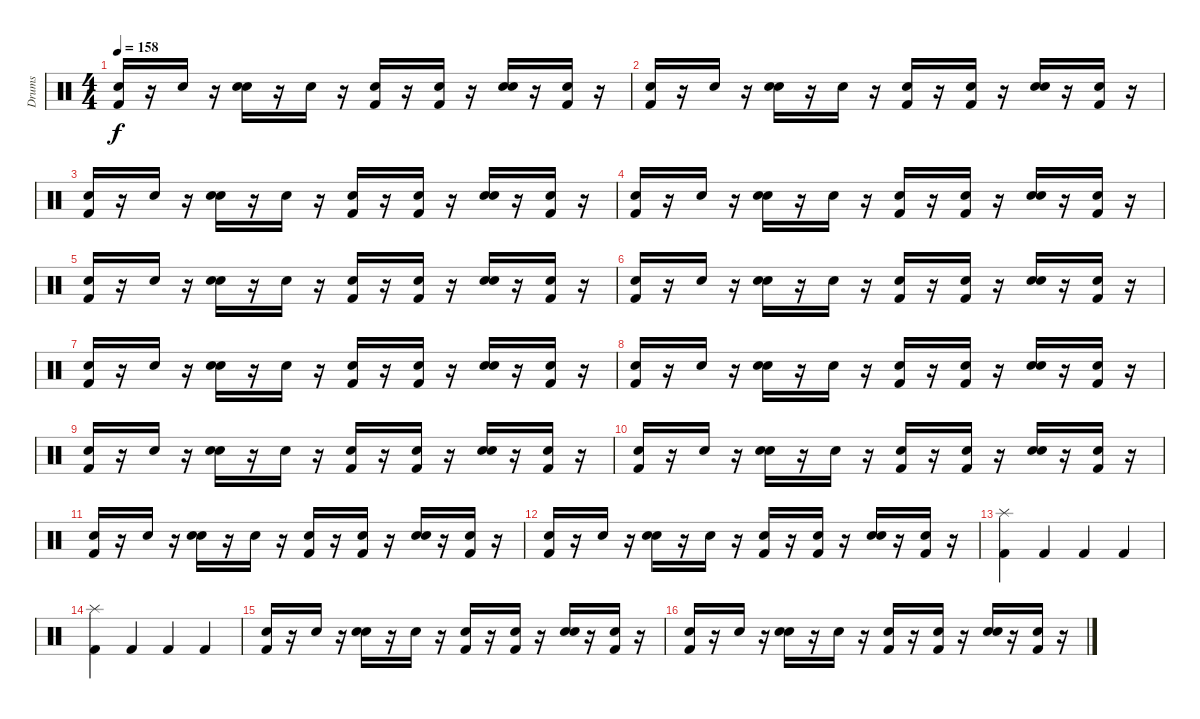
\track ("Drums" "Drums") {instrument percussion}
\staff {score}
\articulation defaults
\ts (4 4)
\tempo 158
\clef neutral
\ks c
("Snare (hit) 2" "Kick (hit) 2").16{dy f} r.16 "Snare (hit) 2".16 r.16 ("Snare (hit) 2" "Electric Snare (hit)").16 r.16 "Snare (hit) 2".16 r.16 ("Snare (hit) 2" "Kick (hit) 2").16 r.16 ("Snare (hit) 2" "Kick (hit) 2").16 r.16 ("Snare (hit) 2" "Electric Snare (hit)").16 r.16 ("Snare (hit) 2" "Kick (hit) 2").16 r.16 |
("Snare (hit) 2" "Kick (hit) 2").16 r.16 "Snare (hit) 2".16 r.16 ("Snare (hit) 2" "Electric Snare (hit)").16 r.16 "Snare (hit) 2".16 r.16 ("Snare (hit) 2" "Kick (hit) 2").16 r.16 ("Snare (hit) 2" "Kick (hit) 2").16 r.16 ("Snare (hit) 2" "Electric Snare (hit)").16 r.16 ("Snare (hit) 2" "Kick (hit) 2").16 r.16 |
("Snare (hit) 2" "Kick (hit) 2").16 r.16 "Snare (hit) 2".16 r.16 ("Snare (hit) 2" "Electric Snare (hit)").16 r.16 "Snare (hit) 2".16 r.16 ("Snare (hit) 2" "Kick (hit) 2").16 r.16 ("Snare (hit) 2" "Kick (hit) 2").16 r.16 ("Snare (hit) 2" "Electric Snare (hit)").16 r.16 ("Snare (hit) 2" "Kick (hit) 2").16 r.16 |
("Snare (hit) 2" "Kick (hit) 2").16 r.16 "Snare (hit) 2".16 r.16 ("Snare (hit) 2" "Electric Snare (hit)").16 r.16 "Snare (hit) 2".16 r.16 ("Snare (hit) 2" "Kick (hit) 2").16 r.16 ("Snare (hit) 2" "Kick (hit) 2").16 r.16 ("Snare (hit) 2" "Electric Snare (hit)").16 r.16 ("Snare (hit) 2" "Kick (hit) 2").16 r.16 |
("Snare (hit) 2" "Kick (hit) 2").16 r.16 "Snare (hit) 2".16 r.16 ("Snare (hit) 2" "Electric Snare (hit)").16 r.16 "Snare (hit) 2".16 r.16 ("Snare (hit) 2" "Kick (hit) 2").16 r.16 ("Snare (hit) 2" "Kick (hit) 2").16 r.16 ("Snare (hit) 2" "Electric Snare (hit)").16 r.16 ("Snare (hit) 2" "Kick (hit) 2").16 r.16 |
("Snare (hit) 2" "Kick (hit) 2").16 r.16 "Snare (hit) 2".16 r.16 ("Snare (hit) 2" "Electric Snare (hit)").16 r.16 "Snare (hit) 2".16 r.16 ("Snare (hit) 2" "Kick (hit) 2").16 r.16 ("Snare (hit) 2" "Kick (hit) 2").16 r.16 ("Snare (hit) 2" "Electric Snare (hit)").16 r.16 ("Snare (hit) 2" "Kick (hit) 2").16 r.16 |
("Snare (hit) 2" "Kick (hit) 2").16 r.16 "Snare (hit) 2".16 r.16 ("Snare (hit) 2" "Electric Snare (hit)").16 r.16 "Snare (hit) 2".16 r.16 ("Snare (hit) 2" "Kick (hit) 2").16 r.16 ("Snare (hit) 2" "Kick (hit) 2").16 r.16 ("Snare (hit) 2" "Electric Snare (hit)").16 r.16 ("Snare (hit) 2" "Kick (hit) 2").16 r.16 |
("Snare (hit) 2" "Kick (hit) 2").16 r.16 "Snare (hit) 2".16 r.16 ("Snare (hit) 2" "Electric Snare (hit)").16 r.16 "Snare (hit) 2".16 r.16 ("Snare (hit) 2" "Kick (hit) 2").16 r.16 ("Snare (hit) 2" "Kick (hit) 2").16 r.16 ("Snare (hit) 2" "Electric Snare (hit)").16 r.16 ("Snare (hit) 2" "Kick (hit) 2").16 r.16 |
("Snare (hit) 2" "Kick (hit) 2").16 r.16 "Snare (hit) 2".16 r.16 ("Snare (hit) 2" "Electric Snare (hit)").16 r.16 "Snare (hit) 2".16 r.16 ("Snare (hit) 2" "Kick (hit) 2").16 r.16 ("Snare (hit) 2" "Kick (hit) 2").16 r.16 ("Snare (hit) 2" "Electric Snare (hit)").16 r.16 ("Snare (hit) 2" "Kick (hit) 2").16 r.16 |
("Snare (hit) 2" "Kick (hit) 2").16 r.16 "Snare (hit) 2".16 r.16 ("Snare (hit) 2" "Electric Snare (hit)").16 r.16 "Snare (hit) 2".16 r.16 ("Snare (hit) 2" "Kick (hit) 2").16 r.16 ("Snare (hit) 2" "Kick (hit) 2").16 r.16 ("Snare (hit) 2" "Electric Snare (hit)").16 r.16 ("Snare (hit) 2" "Kick (hit) 2").16 r.16 |
("Snare (hit) 2" "Kick (hit) 2").16 r.16 "Snare (hit) 2".16 r.16 ("Snare (hit) 2" "Electric Snare (hit)").16 r.16 "Snare (hit) 2".16 r.16 ("Snare (hit) 2" "Kick (hit) 2").16 r.16 ("Snare (hit) 2" "Kick (hit) 2").16 r.16 ("Snare (hit) 2" "Electric Snare (hit)").16 r.16 ("Snare (hit) 2" "Kick (hit) 2").16 r.16 |
("Snare (hit) 2" "Kick (hit) 2").16 r.16 "Snare (hit) 2".16 r.16 ("Snare (hit) 2" "Electric Snare (hit)").16 r.16 "Snare (hit) 2".16 r.16 ("Snare (hit) 2" "Kick (hit) 2").16 r.16 ("Snare (hit) 2" "Kick (hit) 2").16 r.16 ("Snare (hit) 2" "Electric Snare (hit)").16 r.16 ("Snare (hit) 2" "Kick (hit) 2").16 r.16 |
("Splash (hit)" "Kick (hit) 2").4 "Kick (hit) 2".4 "Kick (hit) 2".4 "Kick (hit) 2".4 |
("Splash (hit)" "Kick (hit) 2").4 "Kick (hit) 2".4 "Kick (hit) 2".4 "Kick (hit) 2".4 |
("Snare (hit) 2" "Kick (hit) 2").16 r.16 "Snare (hit) 2".16 r.16 ("Snare (hit) 2" "Electric Snare (hit)").16 r.16 "Snare (hit) 2".16 r.16 ("Snare (hit) 2" "Kick (hit) 2").16 r.16 ("Snare (hit) 2" "Kick (hit) 2").16 r.16 ("Snare (hit) 2" "Electric Snare (hit)").16 r.16 ("Snare (hit) 2" "Kick (hit) 2").16 r.16 |
("Snare (hit) 2" "Kick (hit) 2").16 r.16 "Snare (hit) 2".16 r.16 ("Snare (hit) 2" "Electric Snare (hit)").16 r.16 "Snare (hit) 2".16 r.16 ("Snare (hit) 2" "Kick (hit) 2").16 r.16 ("Snare (hit) 2" "Kick (hit) 2").16 r.16 ("Snare (hit) 2" "Electric Snare (hit)").16 r.16 ("Snare (hit) 2" "Kick (hit) 2").16 r.16
